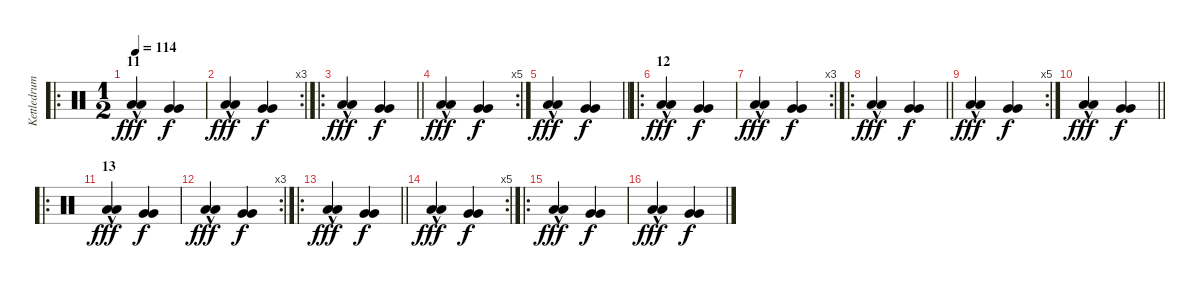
\track ("Kettledrum" "Kettledrum") {instrument percussion}
\staff {score}
\articulation defaults
\ro
\ts (1 2)
\section ("" "11")
\tempo 114
\clef neutral
\ks c
("Low Floor Tom (hit)"{hac} "Low Floor Tom (hit)"{hac}).4{dy fff} ("Very Low Tom (hit)" "Very Low Tom (hit)").4{dy f} |
\rc 3
("Low Floor Tom (hit)"{hac} "Low Floor Tom (hit)"{hac}).4{dy fff} ("Very Low Tom (hit)" "Very Low Tom (hit)").4{dy f} |
\ro
\barLineRight lightlight
("Low Floor Tom (hit)"{hac} "Low Floor Tom (hit)"{hac}).4{dy fff} ("Very Low Tom (hit)" "Very Low Tom (hit)").4{dy f} |
\rc 5
("Low Floor Tom (hit)"{hac} "Low Floor Tom (hit)"{hac}).4{dy fff} ("Very Low Tom (hit)" "Very Low Tom (hit)").4{dy f} |
\barLineRight lightlight
("Low Floor Tom (hit)"{hac} "Low Floor Tom (hit)"{hac}).4{dy fff} ("Very Low Tom (hit)" "Very Low Tom (hit)").4{dy f} |
\ro
\section ("" "12")
("Low Floor Tom (hit)"{hac} "Low Floor Tom (hit)"{hac}).4{dy fff} ("Very Low Tom (hit)" "Very Low Tom (hit)").4{dy f} |
\rc 3
("Low Floor Tom (hit)"{hac} "Low Floor Tom (hit)"{hac}).4{dy fff} ("Very Low Tom (hit)" "Very Low Tom (hit)").4{dy f} |
\ro
\barLineRight lightlight
("Low Floor Tom (hit)"{hac} "Low Floor Tom (hit)"{hac}).4{dy fff} ("Very Low Tom (hit)" "Very Low Tom (hit)").4{dy f} |
\rc 5
("Low Floor Tom (hit)"{hac} "Low Floor Tom (hit)"{hac}).4{dy fff} ("Very Low Tom (hit)" "Very Low Tom (hit)").4{dy f} |
\barLineRight lightlight
("Low Floor Tom (hit)"{hac} "Low Floor Tom (hit)"{hac}).4{dy fff} ("Very Low Tom (hit)" "Very Low Tom (hit)").4{dy f} |
\ro
\section ("" "13")
("Low Floor Tom (hit)"{hac} "Low Floor Tom (hit)"{hac}).4{dy fff} ("Very Low Tom (hit)" "Very Low Tom (hit)").4{dy f} |
\rc 3
("Low Floor Tom (hit)"{hac} "Low Floor Tom (hit)"{hac}).4{dy fff} ("Very Low Tom (hit)" "Very Low Tom (hit)").4{dy f} |
\ro
\barLineRight lightlight
("Low Floor Tom (hit)"{hac} "Low Floor Tom (hit)"{hac}).4{dy fff} ("Very Low Tom (hit)" "Very Low Tom (hit)").4{dy f} |
\rc 5
("Low Floor Tom (hit)"{hac} "Low Floor Tom (hit)"{hac}).4{dy fff} ("Very Low Tom (hit)" "Very Low Tom (hit)").4{dy f} |
\ro
("Low Floor Tom (hit)"{hac} "Low Floor Tom (hit)"{hac}).4{dy fff} ("Very Low Tom (hit)" "Very Low Tom (hit)").4{dy f} |
("Low Floor Tom (hit)"{hac} "Low Floor Tom (hit)"{hac}).4{dy fff} ("Very Low Tom (hit)" "Very Low Tom (hit)").4{dy f}
